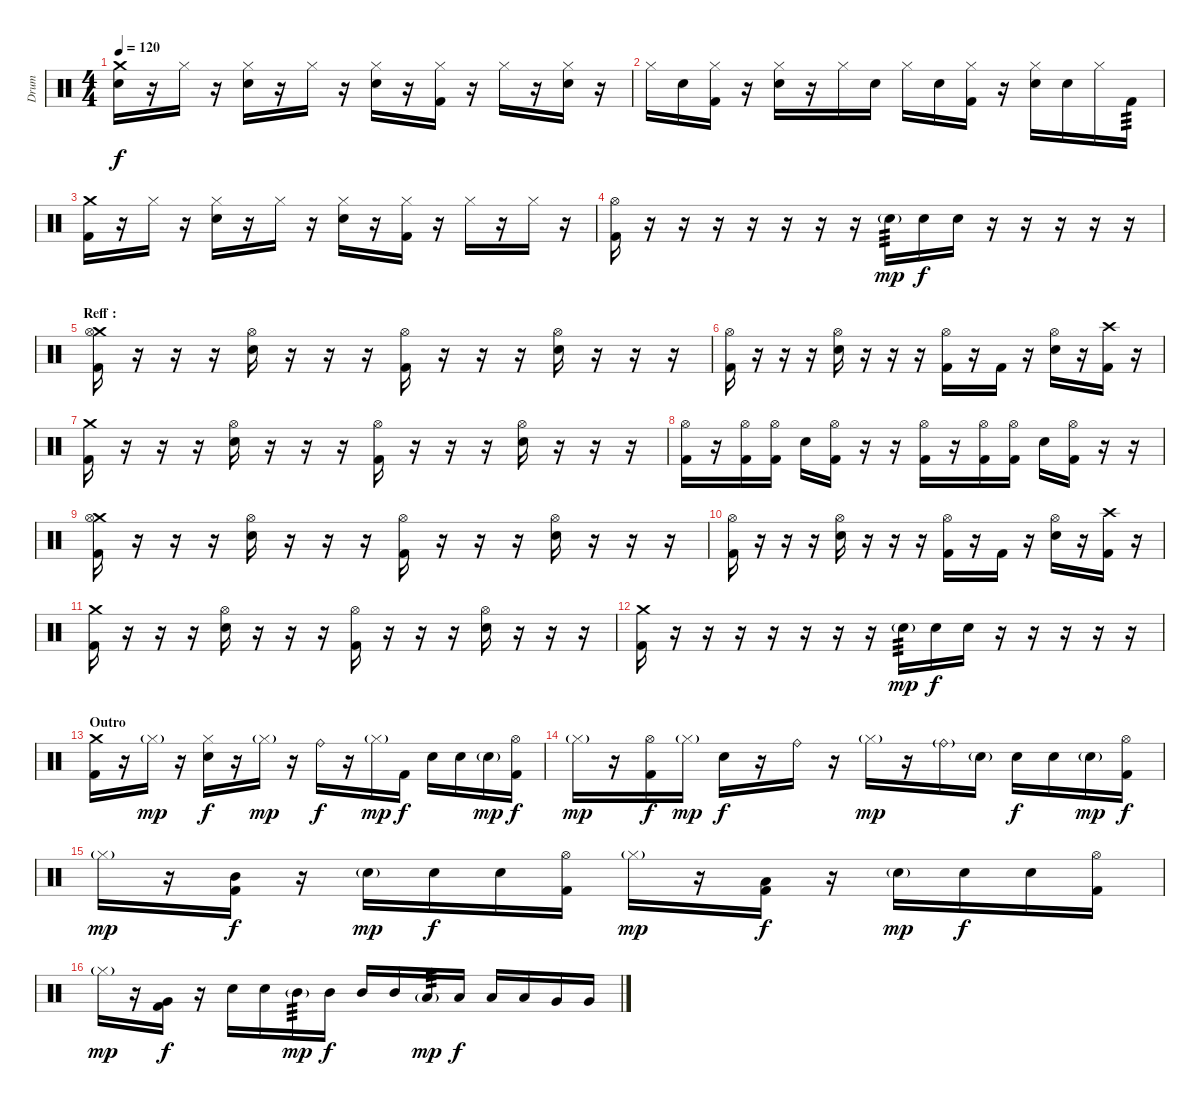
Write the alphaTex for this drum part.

\track ("Drum" "Drum") {instrument percussion}
\staff {score}
\articulation defaults
\ts (4 4)
\tempo 120
\clef neutral
\ks c
("Crash medium (hit)" "Snare (hit) 2").16{dy f} r.16 "Hi-Hat (closed)".16 r.16 ("Hi-Hat (closed)" "Snare (hit) 2").16 r.16 "Hi-Hat (closed)".16 r.16 ("Hi-Hat (closed)" "Snare (hit) 2").16 r.16 ("Hi-Hat (closed)" "Kick (hit) 2").16 r.16 "Hi-Hat (closed)".16 r.16 ("Hi-Hat (closed)" "Snare (hit) 2").16 r.16 |
"Hi-Hat (closed)".16 "Snare (hit) 2".16 ("Hi-Hat (closed)" "Kick (hit) 2").16 r.16 ("Hi-Hat (closed)" "Snare (hit) 2").16 r.16 "Hi-Hat (closed)".16 "Snare (hit) 2".16 "Hi-Hat (closed)".16 "Snare (hit) 2".16 ("Hi-Hat (closed)" "Kick (hit) 2").16 r.16 ("Hi-Hat (closed)" "Snare (hit) 2").16 "Snare (hit) 2".16 "Hi-Hat (closed)".16 "Kick (hit) 2".16{tp 3} |
("Crash medium (hit)" "Kick (hit) 2").16 r.16 "Hi-Hat (closed)".16 r.16 ("Hi-Hat (closed)" "Snare (hit) 2").16 r.16 "Hi-Hat (closed)".16 r.16 ("Hi-Hat (closed)" "Snare (hit) 2").16 r.16 ("Hi-Hat (closed)" "Kick (hit) 2").16 r.16 "Hi-Hat (closed)".16 r.16 "Hi-Hat (closed)".16 r.16 |
("Hi-Hat (open)" "Kick (hit) 2").16 r.16 r.16 r.16 r.16 r.16 r.16 r.16 "Snare (hit) 2"{g}.16{tp 3 dy mp} "Snare (hit) 2".16{dy f} "Snare (hit) 2".16 r.16 r.16 r.16 r.16 r.16 |
\section ("" "Reff :")
("Crash medium (hit)" "Hi-Hat (open)" "Kick (hit) 2").16 r.16 r.16 r.16 ("Hi-Hat (open)" "Snare (hit) 2").16 r.16 r.16 r.16 ("Hi-Hat (open)" "Kick (hit) 2").16 r.16 r.16 r.16 ("Hi-Hat (open)" "Snare (hit) 2").16 r.16 r.16 r.16 |
("Hi-Hat (open)" "Kick (hit) 2").16 r.16 r.16 r.16 ("Hi-Hat (open)" "Snare (hit) 2").16 r.16 r.16 r.16 ("Hi-Hat (open)" "Kick (hit) 2").16 r.16 "Kick (hit) 2".16 r.16 ("Hi-Hat (open)" "Snare (hit) 2").16 r.16 ("Crash high (hit)" "Kick (hit) 2").16 r.16 |
("Crash medium (hit)" "Kick (hit) 2").16 r.16 r.16 r.16 ("Hi-Hat (open)" "Snare (hit) 2").16 r.16 r.16 r.16 ("Hi-Hat (open)" "Kick (hit) 2").16 r.16 r.16 r.16 ("Hi-Hat (open)" "Snare (hit) 2").16 r.16 r.16 r.16 |
("Hi-Hat (open)" "Kick (hit) 2").16 r.16 ("Hi-Hat (open)" "Kick (hit) 2").16 ("Hi-Hat (open)" "Kick (hit) 2").16 "Snare (hit) 2".16 ("Hi-Hat (open)" "Kick (hit) 2").16 r.16 r.16 ("Hi-Hat (open)" "Kick (hit) 2").16 r.16 ("Hi-Hat (open)" "Kick (hit) 2").16 ("Hi-Hat (open)" "Kick (hit) 2").16 "Snare (hit) 2".16 ("Hi-Hat (open)" "Kick (hit) 2").16 r.16 r.16 |
("Crash medium (hit)" "Hi-Hat (open)" "Kick (hit) 2").16 r.16 r.16 r.16 ("Hi-Hat (open)" "Snare (hit) 2").16 r.16 r.16 r.16 ("Hi-Hat (open)" "Kick (hit) 2").16 r.16 r.16 r.16 ("Hi-Hat (open)" "Snare (hit) 2").16 r.16 r.16 r.16 |
("Hi-Hat (open)" "Kick (hit) 2").16 r.16 r.16 r.16 ("Hi-Hat (open)" "Snare (hit) 2").16 r.16 r.16 r.16 ("Hi-Hat (open)" "Kick (hit) 2").16 r.16 "Kick (hit) 2".16 r.16 ("Hi-Hat (open)" "Snare (hit) 2").16 r.16 ("Crash high (hit)" "Kick (hit) 2").16 r.16 |
("Crash medium (hit)" "Kick (hit) 2").16 r.16 r.16 r.16 ("Hi-Hat (open)" "Snare (hit) 2").16 r.16 r.16 r.16 ("Hi-Hat (open)" "Kick (hit) 2").16 r.16 r.16 r.16 ("Hi-Hat (open)" "Snare (hit) 2").16 r.16 r.16 r.16 |
("Crash medium (hit)" "Kick (hit) 2").16 r.16 r.16 r.16 r.16 r.16 r.16 r.16 "Snare (hit) 2"{g}.16{tp 3 dy mp} "Snare (hit) 2".16{dy f} "Snare (hit) 2".16 r.16 r.16 r.16 r.16 r.16 |
\section ("" "Outro")
("Crash medium (hit)" "Kick (hit) 2").16 r.16 "Hi-Hat (closed)"{g}.16{dy mp} r.16 ("Hi-Hat (closed)" "Snare (hit) 2").16{dy f} r.16 "Hi-Hat (closed)"{g}.16{dy mp} r.16 "Ride (bell)".16{dy f} r.16 "Hi-Hat (closed)"{g}.16{dy mp} "Kick (hit) 2".16{dy f} "Snare (hit) 2".16 "Snare (hit) 2".16 "Snare (hit) 2"{g}.16{dy mp} ("Hi-Hat (open)" "Kick (hit) 2").16{dy f} |
"Hi-Hat (closed)"{g}.16{dy mp} r.16 ("Hi-Hat (open)" "Kick (hit) 2").16{dy f} "Hi-Hat (closed)"{g}.16{dy mp} "Snare (hit) 2".16{dy f} r.16 "Ride (bell)".16 r.16 "Hi-Hat (closed)"{g}.16{dy mp} r.16 "Ride (bell)"{g}.16 "Snare (hit) 2"{g}.16 "Snare (hit) 2".16{dy f} "Snare (hit) 2".16 "Snare (hit) 2"{g}.16{dy mp} ("Hi-Hat (open)" "Kick (hit) 2").16{dy f} |
"Hi-Hat (closed)"{g}.16{dy mp} r.16 ("Mid Tom (hit)" "Kick (hit) 2").16{dy f} r.16 "Snare (hit) 2"{g}.16{dy mp} "Snare (hit) 2".16{dy f} "Snare (hit) 2".16 ("Hi-Hat (open)" "Kick (hit) 2").16 "Hi-Hat (closed)"{g}.16{dy mp} r.16 ("Low Tom (hit)" "Kick (hit) 2").16{dy f} r.16 "Snare (hit) 2"{g}.16{dy mp} "Snare (hit) 2".16{dy f} "Snare (hit) 2".16 ("Hi-Hat (open)" "Kick (hit) 2").16 |
"Hi-Hat (closed)"{g}.16{dy mp} r.16 ("Very Low Tom (hit)" "Kick (hit) 2").16{dy f} r.16 "Snare (hit) 2".16 "Snare (hit) 2".16 "Mid Tom (hit)"{g}.16{tp 3 dy mp} "Mid Tom (hit)".16{dy f} "Mid Tom (hit)".16 "Mid Tom (hit)".16 "Low Tom (hit)"{g}.16{tp 3 dy mp} "Low Tom (hit)".16{dy f} "Low Tom (hit)".16 "Low Tom (hit)".16 "Very Low Tom (hit)".16 "Very Low Tom (hit)".16
